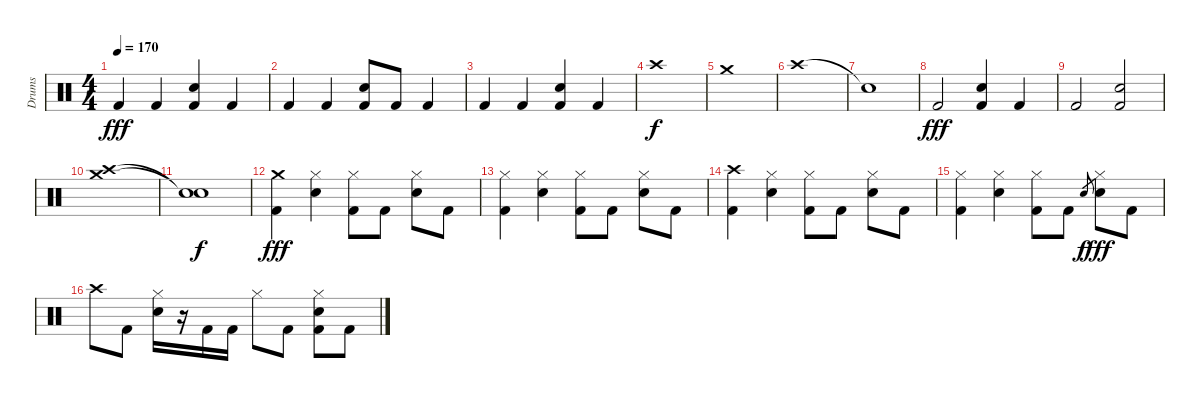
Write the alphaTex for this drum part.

\track ("Drums" "Drums") {instrument percussion}
\staff {score}
\articulation defaults
\ts (4 4)
\tempo 170
\clef neutral
\ks c "Kick (hit) 2".4{dy fff} "Kick (hit) 2".4
("Electric Snare (hit)" "Kick (hit) 2").4 "Kick (hit) 2".4 |
"Kick (hit) 2".4 "Kick (hit) 2".4 ("Electric Snare (hit)" "Kick (hit) 2").8 "Kick (hit) 2".8 "Kick (hit) 2".4 |
"Kick (hit) 2".4 "Kick (hit) 2".4 ("Electric Snare (hit)" "Kick (hit) 2").4 "Kick (hit) 2".4 |
"Crash high (hit)".1{dy f} |
"Crash medium (hit)".1 |
"Crash high (hit)".1 |
"Snare (hit)"{t}.1 |
"Kick (hit) 2".2{dy fff} ("Electric Snare (hit)" "Kick (hit) 2").4 "Kick (hit) 2".4 |
"Kick (hit) 2".2 ("Electric Snare (hit)" "Kick (hit) 2").2 |
("Crash medium (hit)" "Crash high (hit)").1 |
("Snare (hit)"{t} "Snare (hit)"{t}).1{dy f} |
("Crash medium (hit)" "Kick (hit) 2").4{dy fff} ("Hi-Hat (closed)" "Electric Snare (hit)").4 ("Hi-Hat (closed)" "Kick (hit) 2").8 "Kick (hit) 2".8 ("Hi-Hat (closed)" "Electric Snare (hit)").8 "Kick (hit) 2".8 |
("Hi-Hat (closed)" "Kick (hit) 2").4 ("Hi-Hat (closed)" "Electric Snare (hit)").4 ("Hi-Hat (closed)" "Kick (hit) 2").8 "Kick (hit) 2".8 ("Hi-Hat (closed)" "Electric Snare (hit)").8 "Kick (hit) 2".8 |
("Crash high (hit)" "Kick (hit) 2").4 ("Hi-Hat (closed)" "Electric Snare (hit)").4 ("Hi-Hat (closed)" "Kick (hit) 2").8 "Kick (hit) 2".8 ("Hi-Hat (closed)" "Electric Snare (hit)").8 "Kick (hit) 2".8 |
("Hi-Hat (closed)" "Kick (hit) 2").4 ("Hi-Hat (closed)" "Electric Snare (hit)").4 ("Hi-Hat (closed)" "Kick (hit) 2").8 "Kick (hit) 2".8 "Electric Snare (hit)".8{gr dy f} ("Hi-Hat (closed)" "Electric Snare (hit)").8{dy fff} "Kick (hit) 2".8 |
"Crash high (hit)".8 "Kick (hit) 2".8 ("Hi-Hat (closed)" "Electric Snare (hit)").16 r.16 "Kick (hit) 2".16 "Kick (hit) 2".16 "Hi-Hat (closed)".8 "Kick (hit) 2".8 ("Hi-Hat (closed)" "Electric Snare (hit)" "Kick (hit) 2").8 "Kick (hit) 2".8
